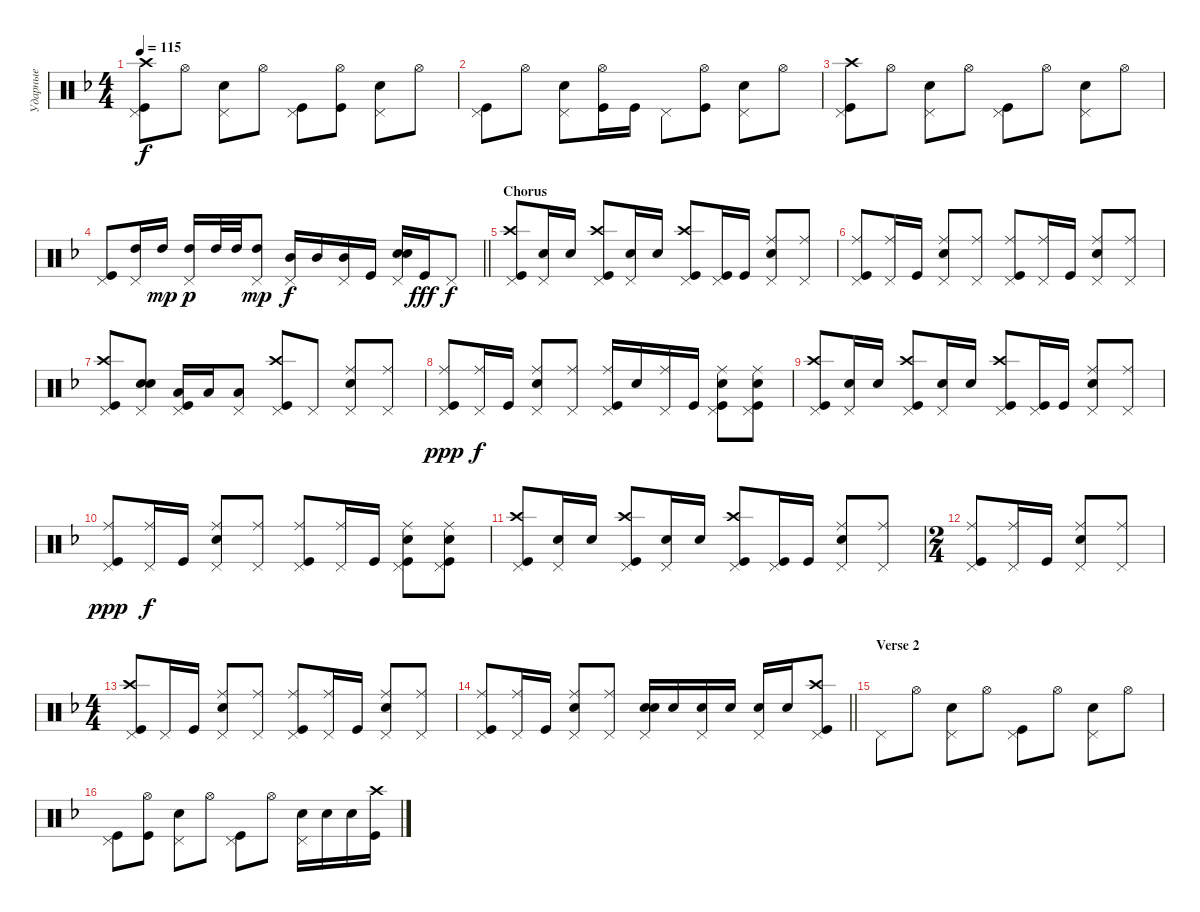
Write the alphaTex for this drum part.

\track ("Ударные" "Ударные") {instrument percussion}
\staff {score}
\articulation defaults
\ts (4 4)
\tempo 115
\clef neutral
\ks dminor
("Kick (hit)" "Crash high (hit)" "Pedal Hi-Hat (hit)").8{dy f} "Hi-Hat (open)".8 ("Snare (hit) 2" "Pedal Hi-Hat (hit)").8 "Hi-Hat (open)".8 ("Kick (hit)" "Pedal Hi-Hat (hit)").8 ("Hi-Hat (open)" "Kick (hit)").8 ("Snare (hit) 2" "Pedal Hi-Hat (hit)").8 "Hi-Hat (open)".8 |
("Kick (hit)" "Pedal Hi-Hat (hit)").8 "Hi-Hat (open)".8 ("Snare (hit) 2" "Pedal Hi-Hat (hit)").8 ("Hi-Hat (open)" "Kick (hit)").16 "Kick (hit)".16 "Pedal Hi-Hat (hit)".8 ("Kick (hit)" "Hi-Hat (open)").8 ("Snare (hit) 2" "Pedal Hi-Hat (hit)").8 "Hi-Hat (open)".8 |
("Kick (hit)" "Crash high (hit)" "Pedal Hi-Hat (hit)").8 "Hi-Hat (open)".8 ("Snare (hit) 2" "Pedal Hi-Hat (hit)").8 "Hi-Hat (open)".8 ("Kick (hit)" "Pedal Hi-Hat (hit)").8 "Hi-Hat (open)".8 ("Snare (hit) 2" "Pedal Hi-Hat (hit)").8 "Hi-Hat (open)".8 |
\barLineRight lightlight
("Pedal Hi-Hat (hit)" "Kick (hit)").8 ("Pedal Hi-Hat (hit)" "High Tom (hit)").16 "High Tom (hit)".16{dy mp} ("Pedal Hi-Hat (hit)" "High Tom (hit)").16{dy p} "High Tom (hit)".32 "High Tom (hit)".32 ("High Tom (hit)" "Pedal Hi-Hat (hit)").8{dy mp} ("Pedal Hi-Hat (hit)" "Mid Tom (hit)").16{dy f} "Mid Tom (hit)".16 ("Mid Tom (hit)" "Pedal Hi-Hat (hit)").16 "Kick (hit)".16 ("Snare (hit) 2" "Snare (hit) 2" "Pedal Hi-Hat (hit)").16{bd 480} "Kick (hit)".16{dy fff} "Pedal Hi-Hat (hit)".8{dy f} |
\section ("" "Chorus")
("Kick (hit)" "Crash high (hit)" "Pedal Hi-Hat (hit)").8 ("Snare (hit) 2" "Pedal Hi-Hat (hit)").16 "Snare (hit) 2".16 ("Kick (hit)" "Crash high (hit)" "Pedal Hi-Hat (hit)").8 ("Snare (hit) 2" "Pedal Hi-Hat (hit)").16 "Snare (hit) 2".16 ("Kick (hit)" "Crash high (hit)" "Pedal Hi-Hat (hit)").8 ("Pedal Hi-Hat (hit)" "Kick (hit)").16 "Kick (hit)".16 ("Snare (hit) 2" "Pedal Hi-Hat (hit)" "Ride (middle)").8 ("Pedal Hi-Hat (hit)" "Ride (middle)").8 |
("Kick (hit)" "Pedal Hi-Hat (hit)" "Ride (middle)").8 ("Ride (middle)" "Pedal Hi-Hat (hit)").16 "Kick (hit)".16 ("Pedal Hi-Hat (hit)" "Snare (hit) 2" "Ride (middle)").8 ("Ride (middle)" "Pedal Hi-Hat (hit)").8 ("Kick (hit)" "Pedal Hi-Hat (hit)" "Ride (middle)").8 ("Ride (middle)" "Pedal Hi-Hat (hit)").16 "Kick (hit)".16 ("Pedal Hi-Hat (hit)" "Snare (hit) 2" "Ride (middle)").8 ("Ride (middle)" "Pedal Hi-Hat (hit)").8 |
("Kick (hit)" "Crash high (hit)" "Pedal Hi-Hat (hit)").8 ("Snare (hit) 2" "Snare (hit) 2" "Pedal Hi-Hat (hit)").8{bd 240} ("Low Tom (hit)" "Pedal Hi-Hat (hit)" "Kick (hit)").16 "Low Tom (hit)".16 ("Low Tom (hit)" "Pedal Hi-Hat (hit)").8 ("Kick (hit)" "Crash high (hit)" "Pedal Hi-Hat (hit)").8 "Pedal Hi-Hat (hit)".8 ("Snare (hit) 2" "Pedal Hi-Hat (hit)" "Ride (middle)").8 ("Ride (middle)" "Pedal Hi-Hat (hit)").8 |
("Kick (hit)" "Pedal Hi-Hat (hit)" "Ride (middle)").8{dy ppp} ("Ride (middle)" "Pedal Hi-Hat (hit)").16{dy f} "Kick (hit)".16 ("Pedal Hi-Hat (hit)" "Snare (hit) 2" "Ride (middle)").8 ("Ride (middle)" "Pedal Hi-Hat (hit)").8 ("Pedal Hi-Hat (hit)" "Kick (hit)" "Ride (middle)").16 "Snare (hit) 2".16 ("Ride (middle)" "Pedal Hi-Hat (hit)").16 "Kick (hit)".16 ("Pedal Hi-Hat (hit)" "Snare (hit) 2" "Kick (hit)" "Ride (middle)").8 ("Pedal Hi-Hat (hit)" "Snare (hit) 2" "Kick (hit)" "Ride (middle)").8 |
("Kick (hit)" "Crash high (hit)" "Pedal Hi-Hat (hit)").8 ("Snare (hit) 2" "Pedal Hi-Hat (hit)").16 "Snare (hit) 2".16 ("Kick (hit)" "Crash high (hit)" "Pedal Hi-Hat (hit)").8 ("Snare (hit) 2" "Pedal Hi-Hat (hit)").16 "Snare (hit) 2".16 ("Kick (hit)" "Crash high (hit)" "Pedal Hi-Hat (hit)").8 ("Pedal Hi-Hat (hit)" "Kick (hit)").16 "Kick (hit)".16 ("Snare (hit) 2" "Pedal Hi-Hat (hit)" "Ride (middle)").8 ("Pedal Hi-Hat (hit)" "Ride (middle)").8 |
("Kick (hit)" "Pedal Hi-Hat (hit)" "Ride (middle)").8{dy ppp} ("Ride (middle)" "Pedal Hi-Hat (hit)").16{dy f} "Kick (hit)".16 ("Pedal Hi-Hat (hit)" "Snare (hit) 2" "Ride (middle)").8 ("Ride (middle)" "Pedal Hi-Hat (hit)").8 ("Pedal Hi-Hat (hit)" "Kick (hit)" "Ride (middle)").8 ("Ride (middle)" "Pedal Hi-Hat (hit)").16 "Kick (hit)".16 ("Pedal Hi-Hat (hit)" "Snare (hit) 2" "Kick (hit)" "Ride (middle)").8 ("Pedal Hi-Hat (hit)" "Snare (hit) 2" "Kick (hit)" "Ride (middle)").8 |
("Kick (hit)" "Crash high (hit)" "Pedal Hi-Hat (hit)").8 ("Snare (hit) 2" "Pedal Hi-Hat (hit)").16 "Snare (hit) 2".16 ("Kick (hit)" "Crash high (hit)" "Pedal Hi-Hat (hit)").8 ("Snare (hit) 2" "Pedal Hi-Hat (hit)").16 "Snare (hit) 2".16 ("Kick (hit)" "Crash high (hit)" "Pedal Hi-Hat (hit)").8 ("Pedal Hi-Hat (hit)" "Kick (hit)").16 "Kick (hit)".16 ("Snare (hit) 2" "Pedal Hi-Hat (hit)" "Ride (middle)").8 ("Pedal Hi-Hat (hit)" "Ride (middle)").8 |
\ts (2 4)
("Kick (hit)" "Pedal Hi-Hat (hit)" "Ride (middle)").8 ("Ride (middle)" "Pedal Hi-Hat (hit)").16 "Kick (hit)".16 ("Ride (middle)" "Snare (hit) 2" "Pedal Hi-Hat (hit)").8 ("Ride (middle)" "Pedal Hi-Hat (hit)").8 |
\ts (4 4)
("Pedal Hi-Hat (hit)" "Kick (hit)" "Crash high (hit)").8 "Pedal Hi-Hat (hit)".16 "Kick (hit)".16 ("Ride (middle)" "Snare (hit) 2" "Pedal Hi-Hat (hit)").8 ("Ride (middle)" "Pedal Hi-Hat (hit)").8 ("Kick (hit)" "Ride (middle)" "Pedal Hi-Hat (hit)").8 ("Pedal Hi-Hat (hit)" "Ride (middle)").16 "Kick (hit)".16 ("Snare (hit) 2" "Ride (middle)" "Pedal Hi-Hat (hit)").8 ("Ride (middle)" "Pedal Hi-Hat (hit)").8 |
\barLineRight lightlight
("Kick (hit)" "Pedal Hi-Hat (hit)" "Ride (middle)").8 ("Pedal Hi-Hat (hit)" "Ride (middle)").16 "Kick (hit)".16 ("Snare (hit) 2" "Ride (middle)" "Pedal Hi-Hat (hit)").8 ("Ride (middle)" "Pedal Hi-Hat (hit)").8 ("Snare (hit) 2" "Snare (hit) 2" "Pedal Hi-Hat (hit)").16{bd 240} "Snare (hit) 2".16 ("Snare (hit) 2" "Pedal Hi-Hat (hit)").16 "Snare (hit) 2".16 ("Snare (hit) 2" "Pedal Hi-Hat (hit)").16 "Snare (hit) 2".16 ("Kick (hit)" "Crash high (hit)" "Pedal Hi-Hat (hit)").8 |
\section ("" "Verse 2")
"Pedal Hi-Hat (hit)".8 "Hi-Hat (open)".8 ("Snare (hit) 2" "Pedal Hi-Hat (hit)").8 "Hi-Hat (open)".8 ("Kick (hit)" "Pedal Hi-Hat (hit)").8 "Hi-Hat (open)".8 ("Snare (hit) 2" "Pedal Hi-Hat (hit)").8 "Hi-Hat (open)".8 |
("Kick (hit)" "Pedal Hi-Hat (hit)").8 ("Hi-Hat (open)" "Kick (hit)").8 ("Snare (hit) 2" "Pedal Hi-Hat (hit)").8 "Hi-Hat (open)".8 ("Kick (hit)" "Pedal Hi-Hat (hit)").8 "Hi-Hat (open)".8 ("Snare (hit) 2" "Pedal Hi-Hat (hit)").16 "Snare (hit) 2".16 "Snare (hit) 2".16 ("Kick (hit)" "Crash high (hit)").16
